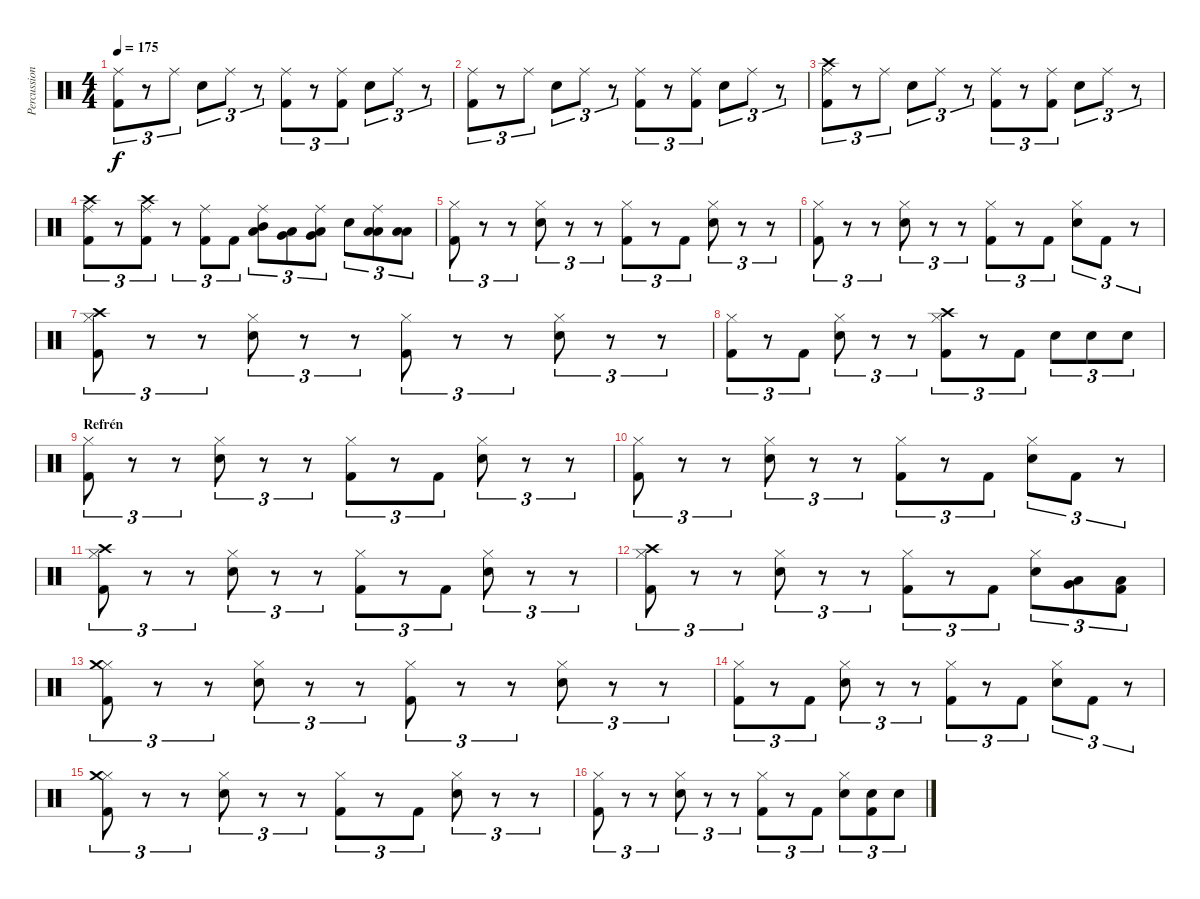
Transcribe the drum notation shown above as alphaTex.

\track ("Percussion" "Percussion") {instrument percussion}
\staff {score}
\articulation defaults
\ts (4 4)
\tempo 175
\clef neutral
\ks c
("Kick (hit) 2" "Ride (middle)").8{tu (3 2) dy f} r.8{tu (3 2)} "Ride (middle)".8{tu (3 2)} "Electric Snare (hit)".8{tu (3 2)} "Ride (middle)".8{tu (3 2)} r.8{tu (3 2)} ("Kick (hit) 2" "Ride (middle)").8{tu (3 2)} r.8{tu (3 2)} ("Kick (hit) 2" "Ride (middle)").8{tu (3 2)} "Electric Snare (hit)".8{tu (3 2)} "Ride (middle)".8{tu (3 2)} r.8{tu (3 2)} |
("Kick (hit) 2" "Ride (middle)").8{tu (3 2)} r.8{tu (3 2)} "Ride (middle)".8{tu (3 2)} "Electric Snare (hit)".8{tu (3 2)} "Ride (middle)".8{tu (3 2)} r.8{tu (3 2)} ("Kick (hit) 2" "Ride (middle)").8{tu (3 2)} r.8{tu (3 2)} ("Kick (hit) 2" "Ride (middle)").8{tu (3 2)} "Electric Snare (hit)".8{tu (3 2)} "Ride (middle)".8{tu (3 2)} r.8{tu (3 2)} |
("Crash high (hit)" "Kick (hit) 2" "Ride (middle)").8{tu (3 2)} r.8{tu (3 2)} "Ride (middle)".8{tu (3 2)} "Electric Snare (hit)".8{tu (3 2)} "Ride (middle)".8{tu (3 2)} r.8{tu (3 2)} ("Kick (hit) 2" "Ride (middle)").8{tu (3 2)} r.8{tu (3 2)} ("Kick (hit) 2" "Ride (middle)").8{tu (3 2)} "Electric Snare (hit)".8{tu (3 2)} "Ride (middle)".8{tu (3 2)} r.8{tu (3 2)} |
("Crash high (hit)" "Kick (hit) 2" "Ride (middle)").8{tu (3 2)} r.8{tu (3 2)} ("Crash high (hit)" "Kick (hit) 2" "Ride (middle)").8{tu (3 2)} r.8{tu (3 2)} ("Kick (hit) 2" "Ride (middle)").8{tu (3 2)} "Kick (hit) 2".8{tu (3 2)} ("Mid Tom (hit)" "Low Tom (hit)" "Ride (middle)").8{tu (3 2)} ("Low Tom (hit)" "Very Low Tom (hit)").8{tu (3 2)} ("Low Tom (hit)" "Very Low Tom (hit)" "Ride (middle)").8{tu (3 2)} "Electric Snare (hit)".8{tu (3 2)} ("Low Tom (hit)" "Low Tom (hit)" "Ride (middle)").8{tu (3 2)} ("Low Tom (hit)" "Low Tom (hit)").8{tu (3 2)} |
("Hi-Hat (closed)" "Kick (hit) 2").8{tu (3 2)} r.8{tu (3 2)} r.8{tu (3 2)} ("Hi-Hat (closed)" "Electric Snare (hit)").8{tu (3 2)} r.8{tu (3 2)} r.8{tu (3 2)} ("Hi-Hat (closed)" "Kick (hit) 2").8{tu (3 2)} r.8{tu (3 2)} "Kick (hit) 2".8{tu (3 2)} ("Hi-Hat (closed)" "Electric Snare (hit)").8{tu (3 2)} r.8{tu (3 2)} r.8{tu (3 2)} |
("Hi-Hat (closed)" "Kick (hit) 2").8{tu (3 2)} r.8{tu (3 2)} r.8{tu (3 2)} ("Hi-Hat (closed)" "Electric Snare (hit)").8{tu (3 2)} r.8{tu (3 2)} r.8{tu (3 2)} ("Hi-Hat (closed)" "Kick (hit) 2").8{tu (3 2)} r.8{tu (3 2)} "Kick (hit) 2".8{tu (3 2)} ("Hi-Hat (closed)" "Electric Snare (hit)").8{tu (3 2)} "Kick (hit) 2".8{tu (3 2)} r.8{tu (3 2)} |
("Hi-Hat (closed)" "Crash high (hit)" "Kick (hit) 2").8{tu (3 2)} r.8{tu (3 2)} r.8{tu (3 2)} ("Hi-Hat (closed)" "Electric Snare (hit)").8{tu (3 2)} r.8{tu (3 2)} r.8{tu (3 2)} ("Hi-Hat (closed)" "Kick (hit) 2").8{tu (3 2)} r.8{tu (3 2)} r.8{tu (3 2)} ("Hi-Hat (closed)" "Electric Snare (hit)").8{tu (3 2)} r.8{tu (3 2)} r.8{tu (3 2)} |
("Hi-Hat (closed)" "Kick (hit) 2").8{tu (3 2)} r.8{tu (3 2)} "Kick (hit) 2".8{tu (3 2)} ("Hi-Hat (closed)" "Electric Snare (hit)").8{tu (3 2)} r.8{tu (3 2)} r.8{tu (3 2)} ("Hi-Hat (closed)" "Crash high (hit)" "Kick (hit) 2").8{tu (3 2)} r.8{tu (3 2)} "Kick (hit) 2".8{tu (3 2)} "Electric Snare (hit)".8{tu (3 2)} "Electric Snare (hit)".8{tu (3 2)} "Electric Snare (hit)".8{tu (3 2)} |
\section ("" "Refrén")
("Hi-Hat (closed)" "Kick (hit) 2").8{tu (3 2)} r.8{tu (3 2)} r.8{tu (3 2)} ("Hi-Hat (closed)" "Electric Snare (hit)").8{tu (3 2)} r.8{tu (3 2)} r.8{tu (3 2)} ("Hi-Hat (closed)" "Kick (hit) 2").8{tu (3 2)} r.8{tu (3 2)} "Kick (hit) 2".8{tu (3 2)} ("Hi-Hat (closed)" "Electric Snare (hit)").8{tu (3 2)} r.8{tu (3 2)} r.8{tu (3 2)} |
("Hi-Hat (closed)" "Kick (hit) 2").8{tu (3 2)} r.8{tu (3 2)} r.8{tu (3 2)} ("Hi-Hat (closed)" "Electric Snare (hit)").8{tu (3 2)} r.8{tu (3 2)} r.8{tu (3 2)} ("Hi-Hat (closed)" "Kick (hit) 2").8{tu (3 2)} r.8{tu (3 2)} "Kick (hit) 2".8{tu (3 2)} ("Hi-Hat (closed)" "Electric Snare (hit)").8{tu (3 2)} "Kick (hit) 2".8{tu (3 2)} r.8{tu (3 2)} |
("Hi-Hat (closed)" "Kick (hit) 2" "Crash high (hit)").8{tu (3 2)} r.8{tu (3 2)} r.8{tu (3 2)} ("Hi-Hat (closed)" "Electric Snare (hit)").8{tu (3 2)} r.8{tu (3 2)} r.8{tu (3 2)} ("Hi-Hat (closed)" "Kick (hit) 2").8{tu (3 2)} r.8{tu (3 2)} "Kick (hit) 2".8{tu (3 2)} ("Hi-Hat (closed)" "Electric Snare (hit)").8{tu (3 2)} r.8{tu (3 2)} r.8{tu (3 2)} |
("Hi-Hat (closed)" "Kick (hit) 2" "Crash high (hit)").8{tu (3 2)} r.8{tu (3 2)} r.8{tu (3 2)} ("Hi-Hat (closed)" "Electric Snare (hit)").8{tu (3 2)} r.8{tu (3 2)} r.8{tu (3 2)} ("Hi-Hat (closed)" "Kick (hit) 2").8{tu (3 2)} r.8{tu (3 2)} "Kick (hit) 2".8{tu (3 2)} ("Hi-Hat (closed)" "Electric Snare (hit)").8{tu (3 2)} ("Low Tom (hit)" "Very Low Tom (hit)").8{tu (3 2)} ("Low Floor Tom (hit)" "Kick (hit) 2").8{tu (3 2)} |
("Hi-Hat (closed)" "Kick (hit) 2" "Crash medium (hit)").8{tu (3 2)} r.8{tu (3 2)} r.8{tu (3 2)} ("Hi-Hat (closed)" "Electric Snare (hit)").8{tu (3 2)} r.8{tu (3 2)} r.8{tu (3 2)} ("Hi-Hat (closed)" "Kick (hit) 2").8{tu (3 2)} r.8{tu (3 2)} r.8{tu (3 2)} ("Hi-Hat (closed)" "Electric Snare (hit)").8{tu (3 2)} r.8{tu (3 2)} r.8{tu (3 2)} |
("Hi-Hat (closed)" "Kick (hit) 2").8{tu (3 2)} r.8{tu (3 2)} "Kick (hit) 2".8{tu (3 2)} ("Hi-Hat (closed)" "Electric Snare (hit)").8{tu (3 2)} r.8{tu (3 2)} r.8{tu (3 2)} ("Hi-Hat (closed)" "Kick (hit) 2").8{tu (3 2)} r.8{tu (3 2)} "Kick (hit) 2".8{tu (3 2)} ("Hi-Hat (closed)" "Electric Snare (hit)").8{tu (3 2)} "Kick (hit) 2".8{tu (3 2)} r.8{tu (3 2)} |
("Hi-Hat (closed)" "Kick (hit) 2" "Crash medium (hit)").8{tu (3 2)} r.8{tu (3 2)} r.8{tu (3 2)} ("Hi-Hat (closed)" "Electric Snare (hit)").8{tu (3 2)} r.8{tu (3 2)} r.8{tu (3 2)} ("Hi-Hat (closed)" "Kick (hit) 2").8{tu (3 2)} r.8{tu (3 2)} "Kick (hit) 2".8{tu (3 2)} ("Hi-Hat (closed)" "Electric Snare (hit)").8{tu (3 2)} r.8{tu (3 2)} r.8{tu (3 2)} |
("Hi-Hat (closed)" "Kick (hit) 2").8{tu (3 2)} r.8{tu (3 2)} r.8{tu (3 2)} ("Hi-Hat (closed)" "Electric Snare (hit)").8{tu (3 2)} r.8{tu (3 2)} r.8{tu (3 2)} ("Hi-Hat (closed)" "Kick (hit) 2").8{tu (3 2)} r.8{tu (3 2)} "Kick (hit) 2".8{tu (3 2)} ("Hi-Hat (closed)" "Electric Snare (hit)").8{tu (3 2)} ("Kick (hit) 2" "Electric Snare (hit)").8{tu (3 2)} "Electric Snare (hit)".8{tu (3 2)}
